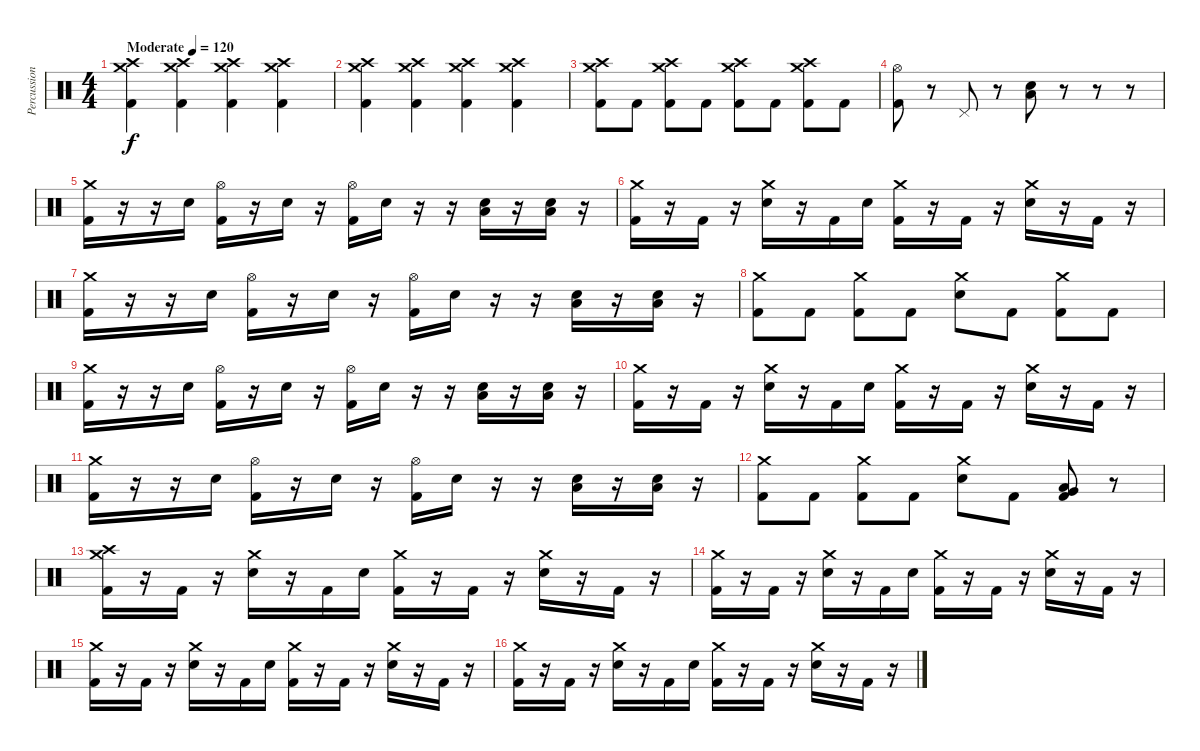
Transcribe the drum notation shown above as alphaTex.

\track ("Percussion" "Percussion") {instrument percussion}
\staff {score}
\articulation defaults
\ts (4 4)
\tempo (120 "Moderate")
\clef neutral
\ks c
("Crash medium (hit)" "Crash high (hit)" "Kick (hit) 2").4{dy f} ("Crash medium (hit)" "Crash high (hit)" "Kick (hit) 2").4 ("Crash medium (hit)" "Crash high (hit)" "Kick (hit) 2").4 ("Crash medium (hit)" "Crash high (hit)" "Kick (hit) 2").4 |
("Crash medium (hit)" "Crash high (hit)" "Kick (hit) 2").4 ("Crash medium (hit)" "Crash high (hit)" "Kick (hit) 2").4 ("Crash medium (hit)" "Crash high (hit)" "Kick (hit) 2").4 ("Crash medium (hit)" "Crash high (hit)" "Kick (hit) 2").4 |
("Crash medium (hit)" "Crash high (hit)" "Kick (hit) 2").8 "Kick (hit) 2".8 ("Crash medium (hit)" "Crash high (hit)" "Kick (hit) 2").8 "Kick (hit) 2".8 ("Crash medium (hit)" "Crash high (hit)" "Kick (hit) 2").8 "Kick (hit) 2".8 ("Crash medium (hit)" "Crash high (hit)" "Kick (hit) 2").8 "Kick (hit) 2".8 |
("Hi-Hat (open)" "Kick (hit) 2").8 r.8 "Pedal Hi-Hat (hit)".8 r.8 ("Low Floor Tom (hit)" "Electric Snare (hit)").8 r.8 r.8 r.8 |
("Crash medium (hit)" "Kick (hit) 2").16 r.16 r.16 "Electric Snare (hit)".16 ("Hi-Hat (open)" "Kick (hit) 2").16 r.16 "Electric Snare (hit)".16 r.16 ("Hi-Hat (open)" "Kick (hit) 2").16 "Electric Snare (hit)".16 r.16 r.16 ("Low Floor Tom (hit)" "Electric Snare (hit)").16 r.16 ("Low Floor Tom (hit)" "Electric Snare (hit)").16 r.16 |
("Crash medium (hit)" "Kick (hit) 2").16 r.16 "Kick (hit) 2".16 r.16 ("Crash medium (hit)" "Electric Snare (hit)").16 r.16 "Kick (hit) 2".16 "Electric Snare (hit)".16 ("Crash medium (hit)" "Kick (hit) 2").16 r.16 "Kick (hit) 2".16 r.16 ("Crash medium (hit)" "Electric Snare (hit)").16 r.16 "Kick (hit) 2".16 r.16 |
("Crash medium (hit)" "Kick (hit) 2").16 r.16 r.16 "Electric Snare (hit)".16 ("Hi-Hat (open)" "Kick (hit) 2").16 r.16 "Electric Snare (hit)".16 r.16 ("Hi-Hat (open)" "Kick (hit) 2").16 "Electric Snare (hit)".16 r.16 r.16 ("Low Floor Tom (hit)" "Electric Snare (hit)").16 r.16 ("Low Floor Tom (hit)" "Electric Snare (hit)").16 r.16 |
("Crash medium (hit)" "Kick (hit) 2").8 "Kick (hit) 2".8 ("Crash medium (hit)" "Kick (hit) 2").8 "Kick (hit) 2".8 ("Crash medium (hit)" "Electric Snare (hit)").8 "Kick (hit) 2".8 ("Crash medium (hit)" "Kick (hit) 2").8 "Kick (hit) 2".8 |
("Crash medium (hit)" "Kick (hit) 2").16 r.16 r.16 "Electric Snare (hit)".16 ("Hi-Hat (open)" "Kick (hit) 2").16 r.16 "Electric Snare (hit)".16 r.16 ("Hi-Hat (open)" "Kick (hit) 2").16 "Electric Snare (hit)".16 r.16 r.16 ("Low Floor Tom (hit)" "Electric Snare (hit)").16 r.16 ("Low Floor Tom (hit)" "Electric Snare (hit)").16 r.16 |
("Crash medium (hit)" "Kick (hit) 2").16 r.16 "Kick (hit) 2".16 r.16 ("Crash medium (hit)" "Electric Snare (hit)").16 r.16 "Kick (hit) 2".16 "Electric Snare (hit)".16 ("Crash medium (hit)" "Kick (hit) 2").16 r.16 "Kick (hit) 2".16 r.16 ("Crash medium (hit)" "Electric Snare (hit)").16 r.16 "Kick (hit) 2".16 r.16 |
("Crash medium (hit)" "Kick (hit) 2").16 r.16 r.16 "Electric Snare (hit)".16 ("Hi-Hat (open)" "Kick (hit) 2").16 r.16 "Electric Snare (hit)".16 r.16 ("Hi-Hat (open)" "Kick (hit) 2").16 "Electric Snare (hit)".16 r.16 r.16 ("Low Floor Tom (hit)" "Electric Snare (hit)").16 r.16 ("Low Floor Tom (hit)" "Electric Snare (hit)").16 r.16 |
("Crash medium (hit)" "Kick (hit) 2").8 "Kick (hit) 2".8 ("Crash medium (hit)" "Kick (hit) 2").8 "Kick (hit) 2".8 ("Crash medium (hit)" "Electric Snare (hit)").8 "Kick (hit) 2".8 ("Very Low Tom (hit)" "Low Floor Tom (hit)" "Kick (hit) 2").8 r.8 |
("Crash medium (hit)" "Crash high (hit)" "Kick (hit) 2").16 r.16 "Kick (hit) 2".16 r.16 ("Crash medium (hit)" "Electric Snare (hit)").16 r.16 "Kick (hit) 2".16 "Electric Snare (hit)".16 ("Crash medium (hit)" "Kick (hit) 2").16 r.16 "Kick (hit) 2".16 r.16 ("Crash medium (hit)" "Electric Snare (hit)").16 r.16 "Kick (hit) 2".16 r.16 |
("Crash medium (hit)" "Kick (hit) 2").16 r.16 "Kick (hit) 2".16 r.16 ("Crash medium (hit)" "Electric Snare (hit)").16 r.16 "Kick (hit) 2".16 "Electric Snare (hit)".16 ("Crash medium (hit)" "Kick (hit) 2").16 r.16 "Kick (hit) 2".16 r.16 ("Crash medium (hit)" "Electric Snare (hit)").16 r.16 "Kick (hit) 2".16 r.16 |
("Crash medium (hit)" "Kick (hit) 2").16 r.16 "Kick (hit) 2".16 r.16 ("Crash medium (hit)" "Electric Snare (hit)").16 r.16 "Kick (hit) 2".16 "Electric Snare (hit)".16 ("Crash medium (hit)" "Kick (hit) 2").16 r.16 "Kick (hit) 2".16 r.16 ("Crash medium (hit)" "Electric Snare (hit)").16 r.16 "Kick (hit) 2".16 r.16 |
("Crash medium (hit)" "Kick (hit) 2").16 r.16 "Kick (hit) 2".16 r.16 ("Crash medium (hit)" "Electric Snare (hit)").16 r.16 "Kick (hit) 2".16 "Electric Snare (hit)".16 ("Crash medium (hit)" "Kick (hit) 2").16 r.16 "Kick (hit) 2".16 r.16 ("Crash medium (hit)" "Electric Snare (hit)").16 r.16 "Kick (hit) 2".16 r.16
